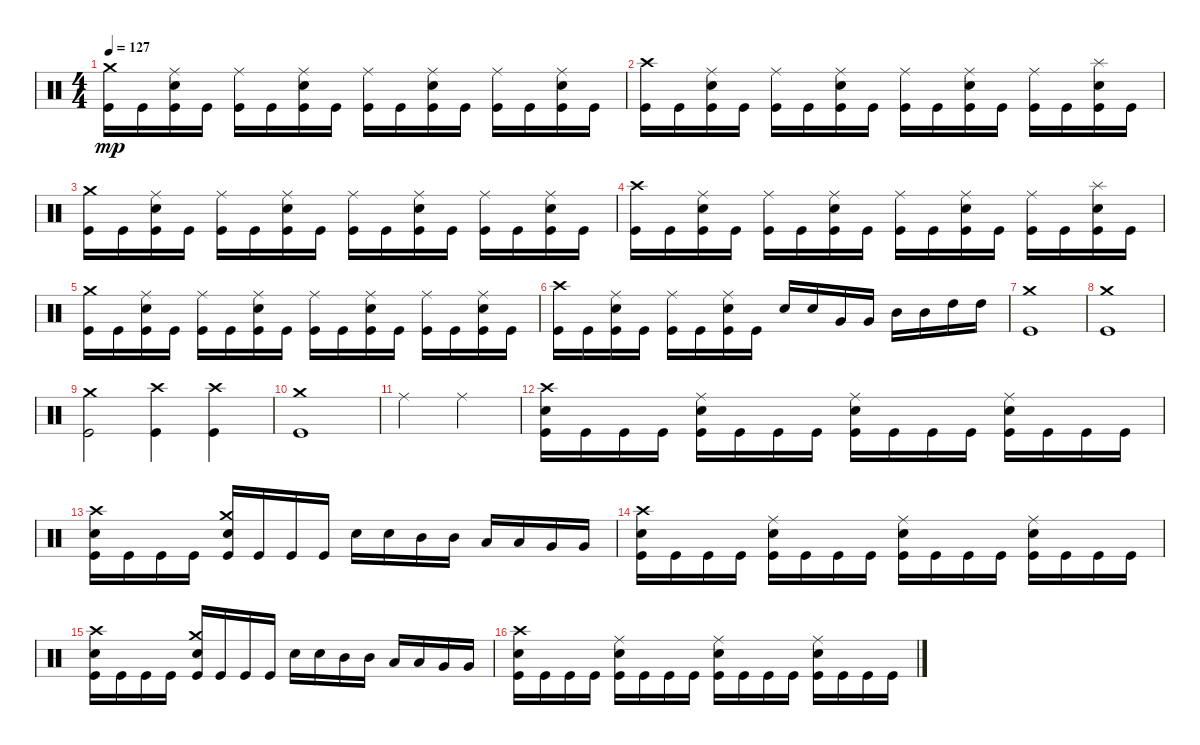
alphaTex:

\track "" {instrument percussion}
\staff {score}
\articulation defaults
\ts (4 4)
\tempo 127
\clef neutral
\ks c
("Kick (hit)" "Crash medium (hit)").16{dy mp} "Kick (hit)".16 ("Kick (hit)" "Snare (hit) 2" "Ride (middle)").16 "Kick (hit)".16 ("Kick (hit)" "Ride (middle)").16 "Kick (hit)".16 ("Kick (hit)" "Snare (hit) 2" "Ride (middle)").16 "Kick (hit)".16 ("Kick (hit)" "Ride (middle)").16 "Kick (hit)".16 ("Kick (hit)" "Snare (hit) 2" "Ride (middle)").16 "Kick (hit)".16 ("Kick (hit)" "Ride (middle)").16 "Kick (hit)".16 ("Kick (hit)" "Snare (hit) 2" "Ride (middle)").16 "Kick (hit)".16 |
("Crash high (hit)" "Kick (hit)").16 "Kick (hit)".16 ("Kick (hit)" "Ride (middle)" "Snare (hit) 2").16 "Kick (hit)".16 ("Kick (hit)" "Ride (middle)").16 "Kick (hit)".16 ("Kick (hit)" "Ride (middle)" "Snare (hit) 2").16 "Kick (hit)".16 ("Kick (hit)" "Ride (middle)").16 "Kick (hit)".16 ("Kick (hit)" "Ride (middle)" "Snare (hit) 2").16 "Kick (hit)".16 ("Kick (hit)" "Ride (middle)").16 "Kick (hit)".16 ("Kick (hit)" "Splash (hit)" "Snare (hit) 2").16 "Kick (hit)".16 |
("Kick (hit)" "Crash medium (hit)").16 "Kick (hit)".16 ("Kick (hit)" "Snare (hit) 2" "Ride (middle)").16 "Kick (hit)".16 ("Kick (hit)" "Ride (middle)").16 "Kick (hit)".16 ("Kick (hit)" "Snare (hit) 2" "Ride (middle)").16 "Kick (hit)".16 ("Kick (hit)" "Ride (middle)").16 "Kick (hit)".16 ("Kick (hit)" "Snare (hit) 2" "Ride (middle)").16 "Kick (hit)".16 ("Kick (hit)" "Ride (middle)").16 "Kick (hit)".16 ("Kick (hit)" "Snare (hit) 2" "Ride (middle)").16 "Kick (hit)".16 |
("Crash high (hit)" "Kick (hit)").16 "Kick (hit)".16 ("Kick (hit)" "Ride (middle)" "Snare (hit) 2").16 "Kick (hit)".16 ("Kick (hit)" "Ride (middle)").16 "Kick (hit)".16 ("Kick (hit)" "Ride (middle)" "Snare (hit) 2").16 "Kick (hit)".16 ("Kick (hit)" "Ride (middle)").16 "Kick (hit)".16 ("Kick (hit)" "Ride (middle)" "Snare (hit) 2").16 "Kick (hit)".16 ("Kick (hit)" "Ride (middle)").16 "Kick (hit)".16 ("Kick (hit)" "Splash (hit)" "Snare (hit) 2").16 "Kick (hit)".16 |
("Kick (hit)" "Crash medium (hit)").16 "Kick (hit)".16 ("Kick (hit)" "Snare (hit) 2" "Ride (middle)").16 "Kick (hit)".16 ("Kick (hit)" "Ride (middle)").16 "Kick (hit)".16 ("Kick (hit)" "Snare (hit) 2" "Ride (middle)").16 "Kick (hit)".16 ("Kick (hit)" "Ride (middle)").16 "Kick (hit)".16 ("Kick (hit)" "Snare (hit) 2" "Ride (middle)").16 "Kick (hit)".16 ("Kick (hit)" "Ride (middle)").16 "Kick (hit)".16 ("Kick (hit)" "Snare (hit) 2" "Ride (middle)").16 "Kick (hit)".16 |
("Crash high (hit)" "Kick (hit)").16 "Kick (hit)".16 ("Kick (hit)" "Ride (middle)" "Snare (hit) 2").16 "Kick (hit)".16 ("Kick (hit)" "Ride (middle)").16 "Kick (hit)".16 ("Kick (hit)" "Ride (middle)" "Snare (hit) 2").16 "Kick (hit)".16 "Snare (hit) 2".16 "Snare (hit) 2".16 "Very Low Tom (hit)".16 "Very Low Tom (hit)".16 "Mid Tom (hit)".16 "Mid Tom (hit)".16 "High Tom (hit)".16 "High Tom (hit)".16 |
("Kick (hit)" "Crash medium (hit)").1 |
("Kick (hit)" "Crash medium (hit)").1 |
("Kick (hit)" "Crash medium (hit)").2 ("Crash high (hit)" "Kick (hit)").4 ("Crash high (hit)" "Kick (hit)").4 |
("Kick (hit)" "Crash medium (hit)").1 |
"Ride (middle)".4 "Ride (middle)".4 |
("Kick (hit)" "Crash high (hit)" "Snare (hit) 2").16 "Kick (hit)".16 "Kick (hit)".16 "Kick (hit)".16 ("Kick (hit)" "Snare (hit) 2" "Ride (middle)").16 "Kick (hit)".16 "Kick (hit)".16 "Kick (hit)".16 ("Kick (hit)" "Snare (hit) 2" "Ride (middle)").16 "Kick (hit)".16 "Kick (hit)".16 "Kick (hit)".16 ("Kick (hit)" "Snare (hit) 2" "Ride (middle)").16 "Kick (hit)".16 "Kick (hit)".16 "Kick (hit)".16 |
("Crash high (hit)" "Kick (hit)" "Snare (hit) 2").16 "Kick (hit)".16 "Kick (hit)".16 "Kick (hit)".16 ("Crash medium (hit)" "Kick (hit)" "Snare (hit) 2").16 "Kick (hit)".16 "Kick (hit)".16 "Kick (hit)".16 "Snare (hit) 2".16 "Snare (hit) 2".16 "Mid Tom (hit)".16 "Mid Tom (hit)".16 "Low Tom (hit)".16 "Low Tom (hit)".16 "Very Low Tom (hit)".16 "Very Low Tom (hit)".16 |
("Kick (hit)" "Crash high (hit)" "Snare (hit) 2").16 "Kick (hit)".16 "Kick (hit)".16 "Kick (hit)".16 ("Kick (hit)" "Snare (hit) 2" "Ride (middle)").16 "Kick (hit)".16 "Kick (hit)".16 "Kick (hit)".16 ("Kick (hit)" "Snare (hit) 2" "Ride (middle)").16 "Kick (hit)".16 "Kick (hit)".16 "Kick (hit)".16 ("Kick (hit)" "Snare (hit) 2" "Ride (middle)").16 "Kick (hit)".16 "Kick (hit)".16 "Kick (hit)".16 |
("Crash high (hit)" "Kick (hit)" "Snare (hit) 2").16 "Kick (hit)".16 "Kick (hit)".16 "Kick (hit)".16 ("Crash medium (hit)" "Kick (hit)" "Snare (hit) 2").16 "Kick (hit)".16 "Kick (hit)".16 "Kick (hit)".16 "Snare (hit) 2".16 "Snare (hit) 2".16 "Mid Tom (hit)".16 "Mid Tom (hit)".16 "Low Tom (hit)".16 "Low Tom (hit)".16 "Very Low Tom (hit)".16 "Very Low Tom (hit)".16 |
("Kick (hit)" "Crash high (hit)" "Snare (hit) 2").16 "Kick (hit)".16 "Kick (hit)".16 "Kick (hit)".16 ("Kick (hit)" "Snare (hit) 2" "Ride (middle)").16 "Kick (hit)".16 "Kick (hit)".16 "Kick (hit)".16 ("Kick (hit)" "Snare (hit) 2" "Ride (middle)").16 "Kick (hit)".16 "Kick (hit)".16 "Kick (hit)".16 ("Kick (hit)" "Snare (hit) 2" "Ride (middle)").16 "Kick (hit)".16 "Kick (hit)".16 "Kick (hit)".16
